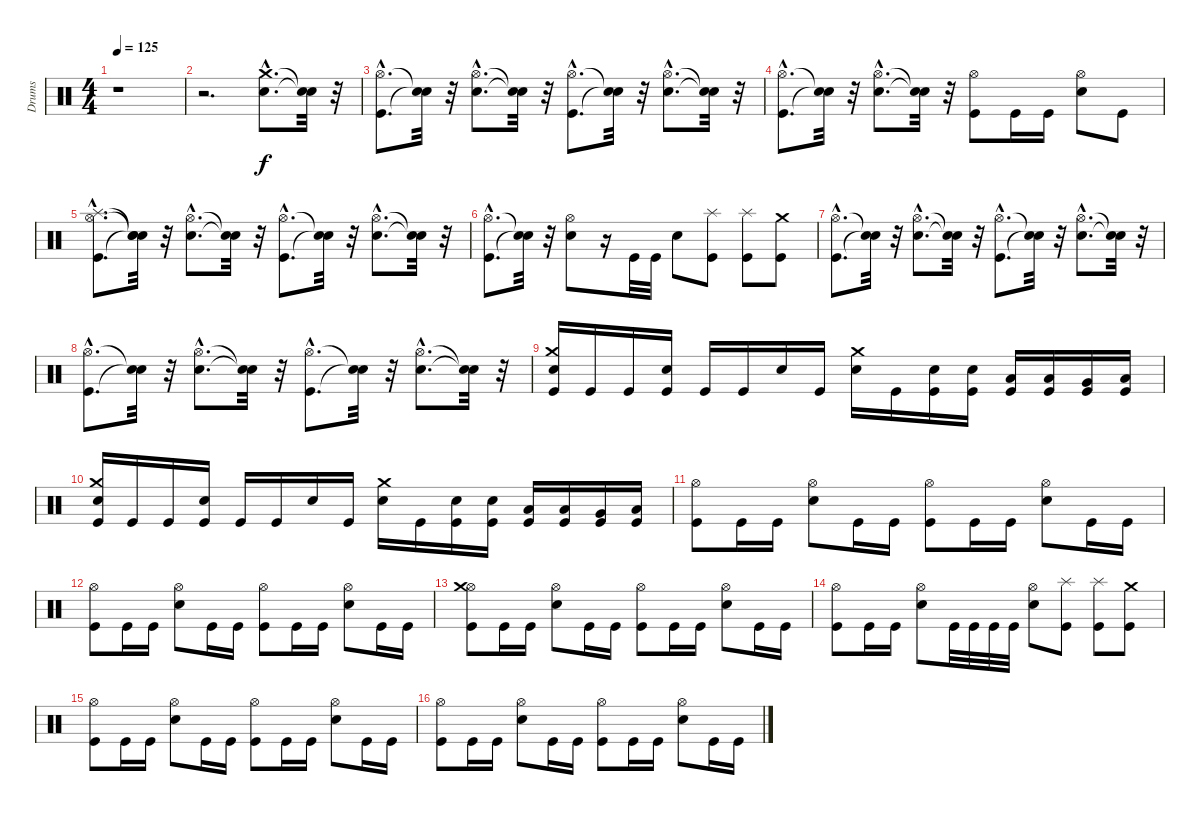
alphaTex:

\track ("Drums" "Drums") {instrument percussion}
\staff {score}
\articulation defaults
\ts (4 4)
\tempo 125
\clef neutral
\ks c
r.1{dy f} |
r.2{d} ("Electric Snare (hit)"{hac} "Crash medium (hit)"{hac}).8{d} ("Snare (hit)"{t} "Snare (hit)"{t}).32 r.32 |
("Kick (hit)"{hac} "Hi-Hat (open)"{hac}).8{d} ("Snare (hit)"{t} "Snare (hit)"{t}).32 r.32 ("Electric Snare (hit)"{hac} "Hi-Hat (open)"{hac}).8{d} ("Snare (hit)"{t} "Snare (hit)"{t}).32 r.32 ("Kick (hit)"{hac} "Hi-Hat (open)"{hac}).8{d} ("Snare (hit)"{t} "Snare (hit)"{t}).32 r.32 ("Electric Snare (hit)"{hac} "Hi-Hat (open)"{hac}).8{d} ("Snare (hit)"{t} "Snare (hit)"{t}).32 r.32 |
("Kick (hit)"{hac} "Hi-Hat (open)"{hac}).8{d} ("Snare (hit)"{t} "Snare (hit)"{t}).32 r.32 ("Electric Snare (hit)"{hac} "Hi-Hat (open)"{hac}).8{d} ("Snare (hit)"{t} "Snare (hit)"{t}).32 r.32 ("Kick (hit)" "Hi-Hat (open)").8 "Kick (hit)".16 "Kick (hit)".16 ("Electric Snare (hit)" "Hi-Hat (open)").8 "Kick (hit)".8 |
("Kick (hit)"{hac} "Hi-Hat (open)"{hac} "Splash (hit)"{hac}).8{d} ("Snare (hit)"{t} "Snare (hit)"{t} "Snare (hit)"{t}).32 r.32 ("Electric Snare (hit)"{hac} "Hi-Hat (open)"{hac}).8{d} ("Snare (hit)"{t} "Snare (hit)"{t}).32 r.32 ("Kick (hit)"{hac} "Hi-Hat (open)"{hac}).8{d} ("Snare (hit)"{t} "Snare (hit)"{t}).32 r.32 ("Electric Snare (hit)"{hac} "Hi-Hat (open)"{hac}).8{d} ("Snare (hit)"{t} "Snare (hit)"{t}).32 r.32 |
("Kick (hit)"{hac} "Hi-Hat (open)"{hac}).8{d} ("Snare (hit)"{t} "Snare (hit)"{t}).32 r.32 ("Electric Snare (hit)" "Hi-Hat (open)").8 r.16 "Kick (hit)".32 "Kick (hit)".32 "Electric Snare (hit)".8 ("Kick (hit)" "Splash (hit)").8 ("Kick (hit)" "Splash (hit)").8 ("Kick (hit)" "Crash medium (hit)").8 |
("Kick (hit)"{hac} "Hi-Hat (open)"{hac}).8{d} ("Snare (hit)"{t} "Snare (hit)"{t}).32 r.32 ("Electric Snare (hit)"{hac} "Hi-Hat (open)"{hac}).8{d} ("Snare (hit)"{t} "Snare (hit)"{t}).32 r.32 ("Kick (hit)"{hac} "Hi-Hat (open)"{hac}).8{d} ("Snare (hit)"{t} "Snare (hit)"{t}).32 r.32 ("Electric Snare (hit)"{hac} "Hi-Hat (open)"{hac}).8{d} ("Snare (hit)"{t} "Snare (hit)"{t}).32 r.32 |
("Kick (hit)"{hac} "Hi-Hat (open)"{hac}).8{d} ("Snare (hit)"{t} "Snare (hit)"{t}).32 r.32 ("Electric Snare (hit)"{hac} "Hi-Hat (open)"{hac}).8{d} ("Snare (hit)"{t} "Snare (hit)"{t}).32 r.32 ("Kick (hit)"{hac} "Hi-Hat (open)"{hac}).8{d} ("Snare (hit)"{t} "Snare (hit)"{t}).32 r.32 ("Electric Snare (hit)"{hac} "Hi-Hat (open)"{hac}).8{d} ("Snare (hit)"{t} "Snare (hit)"{t}).32 r.32 |
("Kick (hit)" "Electric Snare (hit)" "Crash medium (hit)").16 "Kick (hit)".16 "Kick (hit)".16 ("Kick (hit)" "Electric Snare (hit)").16 "Kick (hit)".16 "Kick (hit)".16 "Electric Snare (hit)".16 "Kick (hit)".16 ("Electric Snare (hit)" "Crash medium (hit)").16 "Kick (hit)".16 ("Kick (hit)" "Electric Snare (hit)").16 ("Kick (hit)" "Electric Snare (hit)").16 ("Kick (hit)" "Low Tom (hit)").16 ("Kick (hit)" "Low Tom (hit)").16 ("Kick (hit)" "Very Low Tom (hit)").16 ("Kick (hit)" "Low Floor Tom (hit)").16 |
("Kick (hit)" "Electric Snare (hit)" "Crash medium (hit)").16 "Kick (hit)".16 "Kick (hit)".16 ("Kick (hit)" "Electric Snare (hit)").16 "Kick (hit)".16 "Kick (hit)".16 "Electric Snare (hit)".16 "Kick (hit)".16 ("Electric Snare (hit)" "Crash medium (hit)").16 "Kick (hit)".16 ("Kick (hit)" "Electric Snare (hit)").16 ("Kick (hit)" "Electric Snare (hit)").16 ("Kick (hit)" "Low Tom (hit)").16 ("Kick (hit)" "Low Tom (hit)").16 ("Kick (hit)" "Very Low Tom (hit)").16 ("Kick (hit)" "Low Floor Tom (hit)").16 |
("Kick (hit)" "Hi-Hat (open)").8 "Kick (hit)".16 "Kick (hit)".16 ("Electric Snare (hit)" "Hi-Hat (open)").8 "Kick (hit)".16 "Kick (hit)".16 ("Kick (hit)" "Hi-Hat (open)").8 "Kick (hit)".16 "Kick (hit)".16 ("Electric Snare (hit)" "Hi-Hat (open)").8 "Kick (hit)".16 "Kick (hit)".16 |
("Kick (hit)" "Hi-Hat (open)").8 "Kick (hit)".16 "Kick (hit)".16 ("Electric Snare (hit)" "Hi-Hat (open)").8 "Kick (hit)".16 "Kick (hit)".16 ("Kick (hit)" "Hi-Hat (open)").8 "Kick (hit)".16 "Kick (hit)".16 ("Electric Snare (hit)" "Hi-Hat (open)").8 "Kick (hit)".16 "Kick (hit)".16 |
("Kick (hit)" "Hi-Hat (open)" "Crash medium (hit)").8 "Kick (hit)".16 "Kick (hit)".16 ("Electric Snare (hit)" "Hi-Hat (open)").8 "Kick (hit)".16 "Kick (hit)".16 ("Kick (hit)" "Hi-Hat (open)").8 "Kick (hit)".16 "Kick (hit)".16 ("Electric Snare (hit)" "Hi-Hat (open)").8 "Kick (hit)".16 "Kick (hit)".16 |
("Kick (hit)" "Hi-Hat (open)").8 "Kick (hit)".16 "Kick (hit)".16 ("Electric Snare (hit)" "Hi-Hat (open)").8 "Kick (hit)".32 "Kick (hit)".32 "Kick (hit)".32 "Kick (hit)".32 ("Electric Snare (hit)" "Hi-Hat (open)").8 ("Kick (hit)" "Splash (hit)").8 ("Kick (hit)" "Splash (hit)").8 ("Kick (hit)" "Crash medium (hit)").8 |
("Kick (hit)" "Hi-Hat (open)").8 "Kick (hit)".16 "Kick (hit)".16 ("Electric Snare (hit)" "Hi-Hat (open)").8 "Kick (hit)".16 "Kick (hit)".16 ("Kick (hit)" "Hi-Hat (open)").8 "Kick (hit)".16 "Kick (hit)".16 ("Electric Snare (hit)" "Hi-Hat (open)").8 "Kick (hit)".16 "Kick (hit)".16 |
("Kick (hit)" "Hi-Hat (open)").8 "Kick (hit)".16 "Kick (hit)".16 ("Electric Snare (hit)" "Hi-Hat (open)").8 "Kick (hit)".16 "Kick (hit)".16 ("Kick (hit)" "Hi-Hat (open)").8 "Kick (hit)".16 "Kick (hit)".16 ("Electric Snare (hit)" "Hi-Hat (open)").8 "Kick (hit)".16 "Kick (hit)".16
